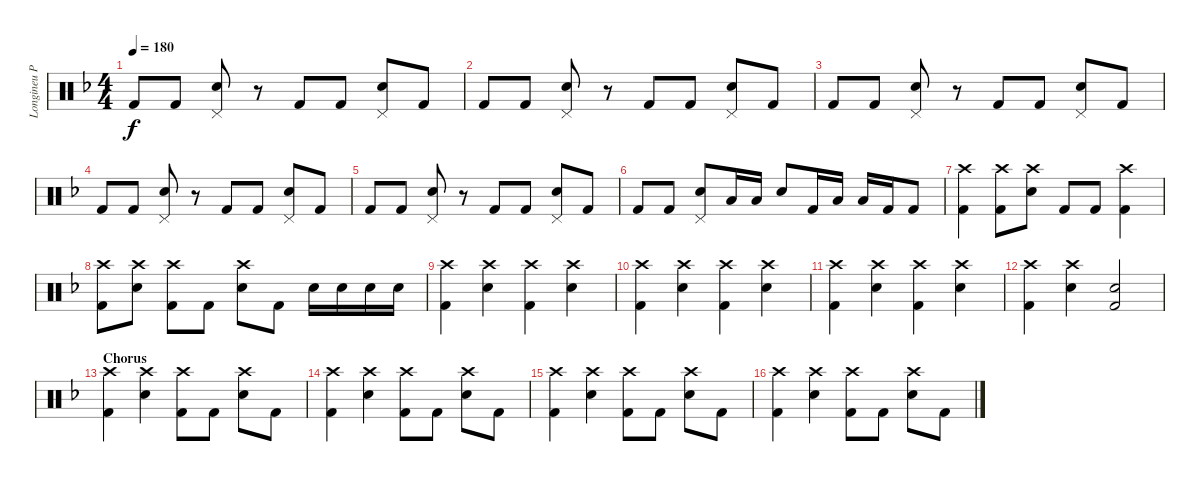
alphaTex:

\track ("Longineu Parsons III (Drums 1)" "Longineu P") {instrument percussion}
\staff {score}
\articulation defaults
\ts (4 4)
\tempo 180
\clef neutral
\ks f "Kick (hit) 2".8{dy f} "Kick (hit) 2".8
("Snare (hit) 2" "Pedal Hi-Hat (hit)").8 r.8 "Kick (hit) 2".8 "Kick (hit) 2".8 ("Snare (hit) 2" "Pedal Hi-Hat (hit)").8 "Kick (hit) 2".8 |
"Kick (hit) 2".8 "Kick (hit) 2".8 ("Snare (hit) 2" "Pedal Hi-Hat (hit)").8 r.8 "Kick (hit) 2".8 "Kick (hit) 2".8 ("Snare (hit) 2" "Pedal Hi-Hat (hit)").8 "Kick (hit) 2".8 |
"Kick (hit) 2".8 "Kick (hit) 2".8 ("Snare (hit) 2" "Pedal Hi-Hat (hit)").8 r.8 "Kick (hit) 2".8 "Kick (hit) 2".8 ("Snare (hit) 2" "Pedal Hi-Hat (hit)").8 "Kick (hit) 2".8 |
"Kick (hit) 2".8 "Kick (hit) 2".8 ("Snare (hit) 2" "Pedal Hi-Hat (hit)").8 r.8 "Kick (hit) 2".8 "Kick (hit) 2".8 ("Snare (hit) 2" "Pedal Hi-Hat (hit)").8 "Kick (hit) 2".8 |
"Kick (hit) 2".8 "Kick (hit) 2".8 ("Snare (hit) 2" "Pedal Hi-Hat (hit)").8 r.8 "Kick (hit) 2".8 "Kick (hit) 2".8 ("Snare (hit) 2" "Pedal Hi-Hat (hit)").8 "Kick (hit) 2".8 |
"Kick (hit) 2".8 "Kick (hit) 2".8 ("Snare (hit) 2" "Pedal Hi-Hat (hit)").8 "Low Tom (hit)".16 "Low Floor Tom (hit)".16 "Snare (hit) 2".8 "Kick (hit) 2".16 "Low Tom (hit)".16 "Low Floor Tom (hit)".16 "Kick (hit) 2".16 "Kick (hit) 2".8 |
("Crash high (hit)" "Kick (hit) 2").4 ("Crash high (hit)" "Kick (hit) 2").8 ("Crash high (hit)" "Snare (hit) 2").8 "Kick (hit) 2".8 "Kick (hit) 2".8 ("Crash high (hit)" "Kick (hit) 2").4 |
("Kick (hit) 2" "Crash high (hit)").8 ("Snare (hit) 2" "Crash high (hit)").8 ("Crash high (hit)" "Kick (hit) 2").8 "Kick (hit) 2".8 ("Crash high (hit)" "Snare (hit) 2").8 "Kick (hit) 2".8 "Snare (hit) 2".16 "Snare (hit) 2".16 "Snare (hit) 2".16 "Snare (hit) 2".16 |
("Crash high (hit)" "Kick (hit) 2").4 ("Crash high (hit)" "Snare (hit) 2").4 ("Crash high (hit)" "Kick (hit) 2").4 ("Crash high (hit)" "Snare (hit) 2").4 |
("Crash high (hit)" "Kick (hit) 2").4 ("Crash high (hit)" "Snare (hit) 2").4 ("Crash high (hit)" "Kick (hit) 2").4 ("Crash high (hit)" "Snare (hit) 2").4 |
("Crash high (hit)" "Kick (hit) 2").4 ("Crash high (hit)" "Snare (hit) 2").4 ("Crash high (hit)" "Kick (hit) 2").4 ("Crash high (hit)" "Snare (hit) 2").4 |
("Crash high (hit)" "Kick (hit) 2").4 ("Crash high (hit)" "Snare (hit) 2").4 ("Snare (hit) 2" "Kick (hit) 2").2 |
\section ("" "Chorus")
("Kick (hit) 2" "Crash high (hit)").4 ("Snare (hit) 2" "Crash high (hit)").4 ("Crash high (hit)" "Kick (hit) 2").8 "Kick (hit) 2".8 ("Crash high (hit)" "Snare (hit) 2").8 "Kick (hit) 2".8 |
("Kick (hit) 2" "Crash high (hit)").4 ("Snare (hit) 2" "Crash high (hit)").4 ("Crash high (hit)" "Kick (hit) 2").8 "Kick (hit) 2".8 ("Crash high (hit)" "Snare (hit) 2").8 "Kick (hit) 2".8 |
("Kick (hit) 2" "Crash high (hit)").4 ("Snare (hit) 2" "Crash high (hit)").4 ("Crash high (hit)" "Kick (hit) 2").8 "Kick (hit) 2".8 ("Crash high (hit)" "Snare (hit) 2").8 "Kick (hit) 2".8 |
("Kick (hit) 2" "Crash high (hit)").4 ("Snare (hit) 2" "Crash high (hit)").4 ("Crash high (hit)" "Kick (hit) 2").8 "Kick (hit) 2".8 ("Crash high (hit)" "Snare (hit) 2").8 "Kick (hit) 2".8
